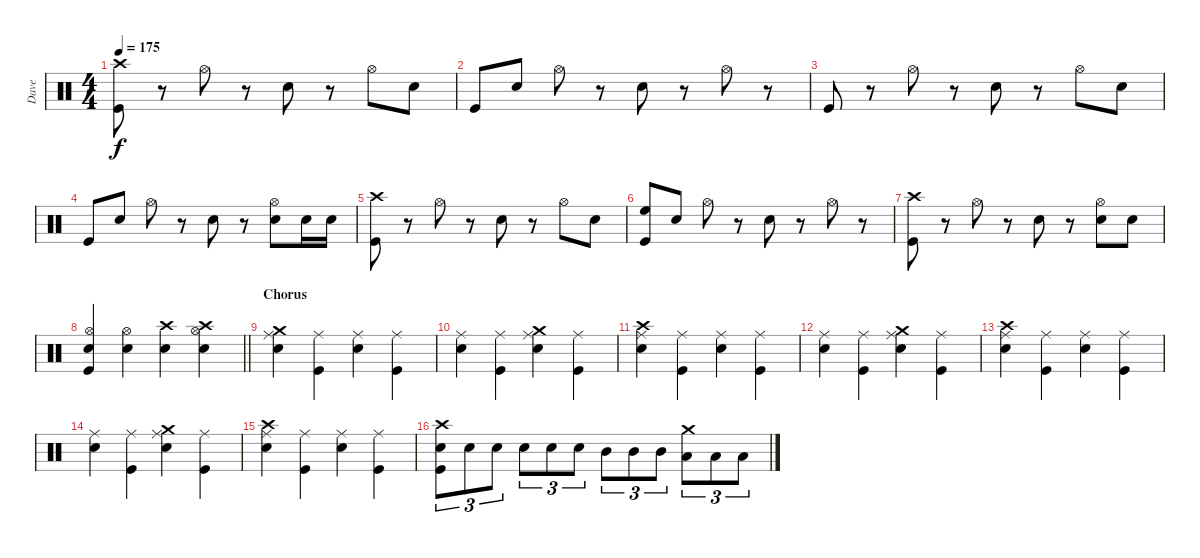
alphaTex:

\track ("Dave" "Dave") {instrument percussion}
\staff {score}
\articulation defaults
\ts (4 4)
\tempo 175
\clef neutral
\ks c
("Crash high (hit)" "Kick (hit)").8{dy f} r.8 "Hi-Hat (open)".8 r.8 "Snare (hit) 2".8 r.8 "Hi-Hat (open)".8 "Snare (hit) 2".8 |
"Kick (hit)".8 "Snare (hit) 2".8 "Hi-Hat (open)".8 r.8 "Snare (hit) 2".8 r.8 "Hi-Hat (open)".8 r.8 |
"Kick (hit)".8 r.8 "Hi-Hat (open)".8 r.8 "Snare (hit) 2".8 r.8 "Hi-Hat (open)".8 "Snare (hit) 2".8 |
"Kick (hit)".8 "Snare (hit) 2".8 "Hi-Hat (open)".8 r.8 "Snare (hit) 2".8 r.8 ("Hi-Hat (open)" "Snare (hit) 2").8 "Snare (hit) 2".16 "Snare (hit) 2".16 |
("Crash high (hit)" "Kick (hit)").8 r.8 "Hi-Hat (open)".8 r.8 "Snare (hit) 2".8 r.8 "Hi-Hat (open)".8 "Snare (hit) 2".8 |
("High Floor Tom (hit)" "Kick (hit)").8 "Snare (hit) 2".8 "Hi-Hat (open)".8 r.8 "Snare (hit) 2".8 r.8 "Hi-Hat (open)".8 r.8 |
("Crash high (hit)" "Kick (hit)").8 r.8 "Hi-Hat (open)".8 r.8 "Snare (hit) 2".8 r.8 ("Hi-Hat (open)" "Snare (hit) 2").8 "Snare (hit) 2".8 |
\barLineRight lightlight
("Hi-Hat (open)" "Snare (hit) 2" "Kick (hit)").4 ("Hi-Hat (open)" "Snare (hit) 2").4 ("Crash high (hit)" "Snare (hit) 2").4 ("Crash high (hit)" "Hi-Hat (open)" "Snare (hit) 2").4 |
\section ("" "Chorus")
("Crash medium (hit)" "Ride (middle)" "Snare (hit) 2").4 ("Ride (middle)" "Kick (hit)").4 ("Ride (middle)" "Snare (hit) 2").4 ("Ride (middle)" "Kick (hit)").4 |
("Ride (middle)" "Snare (hit) 2").4 ("Ride (middle)" "Kick (hit)").4 ("Crash medium (hit)" "Ride (middle)" "Snare (hit) 2").4 ("Ride (middle)" "Kick (hit)").4 |
("Crash high (hit)" "Ride (middle)" "Snare (hit) 2").4 ("Ride (middle)" "Kick (hit)").4 ("Ride (middle)" "Snare (hit) 2").4 ("Ride (middle)" "Kick (hit)").4 |
("Ride (middle)" "Snare (hit) 2").4 ("Ride (middle)" "Kick (hit)").4 ("Crash medium (hit)" "Ride (middle)" "Snare (hit) 2").4 ("Ride (middle)" "Kick (hit)").4 |
("Crash high (hit)" "Ride (middle)" "Snare (hit) 2").4 ("Ride (middle)" "Kick (hit)").4 ("Ride (middle)" "Snare (hit) 2").4 ("Ride (middle)" "Kick (hit)").4 |
("Ride (middle)" "Snare (hit) 2").4 ("Ride (middle)" "Kick (hit)").4 ("Crash medium (hit)" "Ride (middle)" "Snare (hit) 2").4 ("Ride (middle)" "Kick (hit)").4 |
("Crash high (hit)" "Ride (middle)" "Snare (hit) 2").4 ("Ride (middle)" "Kick (hit)").4 ("Ride (middle)" "Snare (hit) 2").4 ("Ride (middle)" "Kick (hit)").4 |
("Crash high (hit)" "Snare (hit) 2" "Kick (hit)").8{tu (3 2)} "Snare (hit) 2".8{tu (3 2)} "Snare (hit) 2".8{tu (3 2)} "Snare (hit) 2".8{tu (3 2)} "Snare (hit) 2".8{tu (3 2)} "Snare (hit) 2".8{tu (3 2)} "Mid Tom (hit)".8{tu (3 2)} "Mid Tom (hit)".8{tu (3 2)} "Mid Tom (hit)".8{tu (3 2)} ("Crash medium (hit)" "Low Tom (hit)").8{tu (3 2)} "Low Tom (hit)".8{tu (3 2)} "Low Tom (hit)".8{tu (3 2)}
